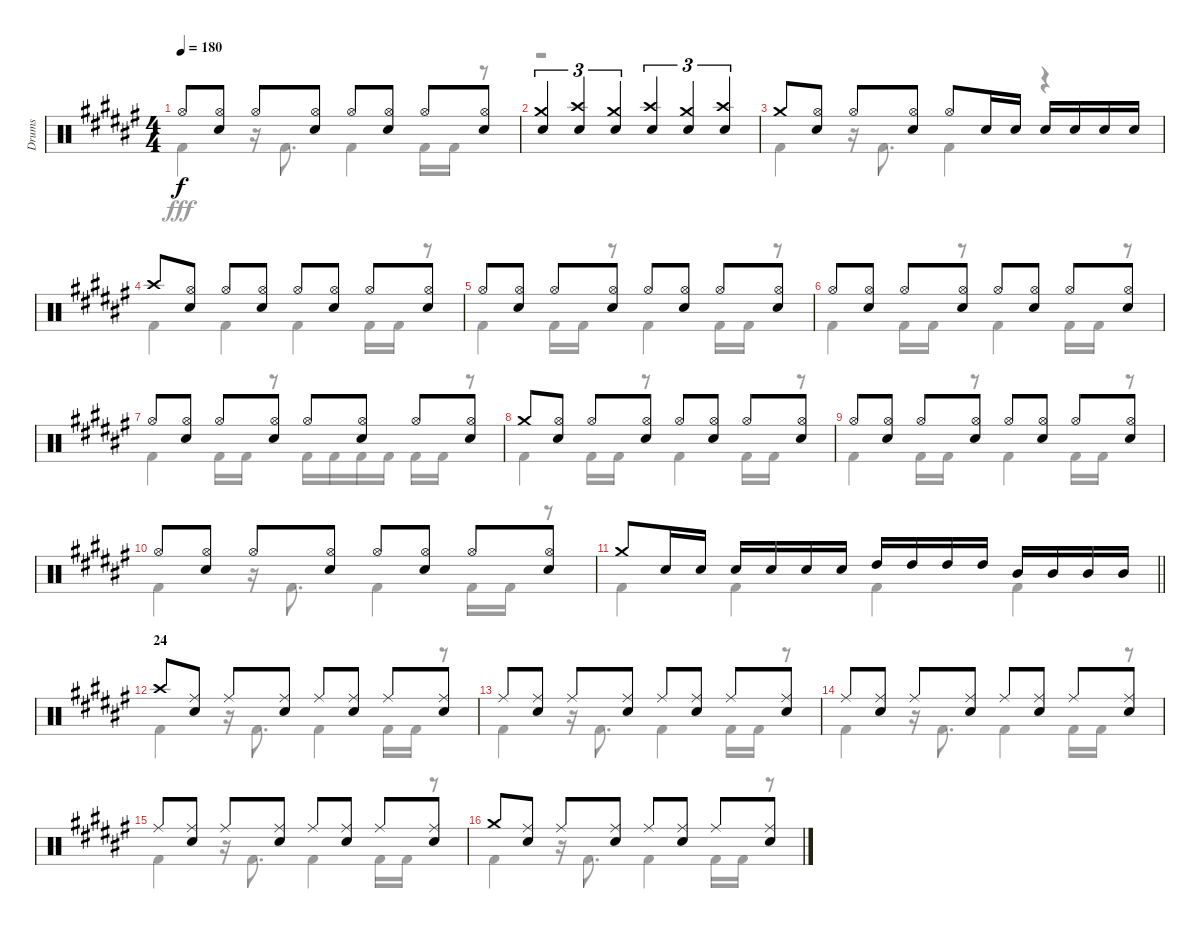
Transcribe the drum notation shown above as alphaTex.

\track ("Drums" "Drums") {instrument percussion}
\staff {score}
\articulation defaults
\voice
\ts (4 4)
\tempo 180
\clef neutral
\ks f# "Hi-Hat (open)".8{dy f}
("Hi-Hat (open)" "Snare (hit) 2").8 "Hi-Hat (open)".8 ("Hi-Hat (open)" "Snare (hit) 2").8 "Hi-Hat (open)".8 ("Hi-Hat (open)" "Snare (hit) 2").8 "Hi-Hat (open)".8 ("Hi-Hat (open)" "Snare (hit) 2").8 |
("Crash medium (hit)" "Snare (hit) 2").4{tu (3 2)} ("Crash high (hit)" "Snare (hit) 2").4{tu (3 2)} ("Crash medium (hit)" "Snare (hit) 2").4{tu (3 2)} ("Crash high (hit)" "Snare (hit) 2").4{tu (3 2)} ("Crash medium (hit)" "Snare (hit) 2").4{tu (3 2)} ("Crash high (hit)" "Snare (hit) 2").4{tu (3 2)} |
"Crash medium (hit)".8 ("Hi-Hat (open)" "Snare (hit) 2").8 "Hi-Hat (open)".8 ("Hi-Hat (open)" "Snare (hit) 2").8 "Hi-Hat (open)".8 "Snare (hit) 2".16 "Snare (hit) 2".16 "Snare (hit) 2".16 "Snare (hit) 2".16 "Snare (hit) 2".16 "Snare (hit) 2".16 |
"Crash high (hit)".8 ("Hi-Hat (open)" "Snare (hit) 2").8 "Hi-Hat (open)".8 ("Hi-Hat (open)" "Snare (hit) 2").8 "Hi-Hat (open)".8 ("Hi-Hat (open)" "Snare (hit) 2").8 "Hi-Hat (open)".8 ("Hi-Hat (open)" "Snare (hit) 2").8 |
"Hi-Hat (open)".8 ("Hi-Hat (open)" "Snare (hit) 2").8 "Hi-Hat (open)".8 ("Hi-Hat (open)" "Snare (hit) 2").8 "Hi-Hat (open)".8 ("Hi-Hat (open)" "Snare (hit) 2").8 "Hi-Hat (open)".8 ("Hi-Hat (open)" "Snare (hit) 2").8 |
"Hi-Hat (open)".8 ("Hi-Hat (open)" "Snare (hit) 2").8 "Hi-Hat (open)".8 ("Hi-Hat (open)" "Snare (hit) 2").8 "Hi-Hat (open)".8 ("Hi-Hat (open)" "Snare (hit) 2").8 "Hi-Hat (open)".8 ("Hi-Hat (open)" "Snare (hit) 2").8 |
"Hi-Hat (open)".8 ("Hi-Hat (open)" "Snare (hit) 2").8 "Hi-Hat (open)".8 ("Hi-Hat (open)" "Snare (hit) 2").8 "Hi-Hat (open)".8 ("Hi-Hat (open)" "Snare (hit) 2").8 "Hi-Hat (open)".8 ("Hi-Hat (open)" "Snare (hit) 2").8 |
"Crash medium (hit)".8 ("Hi-Hat (open)" "Snare (hit) 2").8 "Hi-Hat (open)".8 ("Hi-Hat (open)" "Snare (hit) 2").8 "Hi-Hat (open)".8 ("Hi-Hat (open)" "Snare (hit) 2").8 "Hi-Hat (open)".8 ("Hi-Hat (open)" "Snare (hit) 2").8 |
"Hi-Hat (open)".8 ("Hi-Hat (open)" "Snare (hit) 2").8 "Hi-Hat (open)".8 ("Hi-Hat (open)" "Snare (hit) 2").8 "Hi-Hat (open)".8 ("Hi-Hat (open)" "Snare (hit) 2").8 "Hi-Hat (open)".8 ("Hi-Hat (open)" "Snare (hit) 2").8 |
"Hi-Hat (open)".8 ("Hi-Hat (open)" "Snare (hit) 2").8 "Hi-Hat (open)".8 ("Hi-Hat (open)" "Snare (hit) 2").8 "Hi-Hat (open)".8 ("Hi-Hat (open)" "Snare (hit) 2").8 "Hi-Hat (open)".8 ("Hi-Hat (open)" "Snare (hit) 2").8 |
\barLineRight lightlight "Crash medium (hit)".8 "Snare (hit) 2".16 "Snare (hit) 2".16 "Snare (hit) 2".16 "Snare (hit) 2".16 "Snare (hit) 2".16 "Snare (hit) 2".16 "High Tom (hit)".16 "High Tom (hit)".16 "High Tom (hit)".16 "High Tom (hit)".16 "Mid Tom (hit)".16 "Mid Tom (hit)".16 "Mid Tom (hit)".16 "Mid Tom (hit)".16
|
\section ("" "24")
"Crash high (hit)".8 ("Ride (middle)" "Snare (hit) 2").8 "Ride (middle)".8 ("Ride (middle)" "Snare (hit) 2").8 "Ride (middle)".8 ("Ride (middle)" "Snare (hit) 2").8 "Ride (middle)".8 ("Ride (middle)" "Snare (hit) 2").8 |
"Ride (middle)".8 ("Ride (middle)" "Snare (hit) 2").8 "Ride (middle)".8 ("Ride (middle)" "Snare (hit) 2").8 "Ride (middle)".8 ("Ride (middle)" "Snare (hit) 2").8 "Ride (middle)".8 ("Ride (middle)" "Snare (hit) 2").8 |
"Ride (middle)".8 ("Ride (middle)" "Snare (hit) 2").8 "Ride (middle)".8 ("Ride (middle)" "Snare (hit) 2").8 "Ride (middle)".8 ("Ride (middle)" "Snare (hit) 2").8 "Ride (middle)".8 ("Ride (middle)" "Snare (hit) 2").8 |
"Ride (middle)".8 ("Ride (middle)" "Snare (hit) 2").8 "Ride (middle)".8 ("Ride (middle)" "Snare (hit) 2").8 "Ride (middle)".8 ("Ride (middle)" "Snare (hit) 2").8 "Ride (middle)".8 ("Ride (middle)" "Snare (hit) 2").8 |
"Crash medium (hit)".8 ("Ride (middle)" "Snare (hit) 2").8 "Ride (middle)".8 ("Ride (middle)" "Snare (hit) 2").8 "Ride (middle)".8 ("Ride (middle)" "Snare (hit) 2").8 "Ride (middle)".8 ("Ride (middle)" "Snare (hit) 2").8
\voice
\clef neutral
\ottava regular
\simile none
\ks f# "Kick (hit) 2".4{dy fff}
r.16 "Kick (hit) 2".8{d} "Kick (hit) 2".4 "Kick (hit) 2".16 "Kick (hit) 2".16 r.8 |
r.1 |
"Kick (hit) 2".4 r.16 "Kick (hit) 2".8{d} "Kick (hit) 2".4 r.4 |
"Kick (hit) 2".4 "Kick (hit) 2".4 "Kick (hit) 2".4 "Kick (hit) 2".16 "Kick (hit) 2".16 r.8 |
"Kick (hit) 2".4 "Kick (hit) 2".16 "Kick (hit) 2".16 r.8 "Kick (hit) 2".4 "Kick (hit) 2".16 "Kick (hit) 2".16 r.8 |
"Kick (hit) 2".4 "Kick (hit) 2".16 "Kick (hit) 2".16 r.8 "Kick (hit) 2".4 "Kick (hit) 2".16 "Kick (hit) 2".16 r.8 |
"Kick (hit) 2".4 "Kick (hit) 2".16 "Kick (hit) 2".16 r.8 "Kick (hit) 2".16 "Kick (hit) 2".16 "Kick (hit) 2".16 "Kick (hit) 2".16 "Kick (hit) 2".16 "Kick (hit) 2".16 r.8 |
"Kick (hit) 2".4 "Kick (hit) 2".16 "Kick (hit) 2".16 r.8 "Kick (hit) 2".4 "Kick (hit) 2".16 "Kick (hit) 2".16 r.8 |
"Kick (hit) 2".4 "Kick (hit) 2".16 "Kick (hit) 2".16 r.8 "Kick (hit) 2".4 "Kick (hit) 2".16 "Kick (hit) 2".16 r.8 |
"Kick (hit) 2".4 r.16 "Kick (hit) 2".8{d} "Kick (hit) 2".4 "Kick (hit) 2".16 "Kick (hit) 2".16 r.8 |
\barLineRight lightlight "Kick (hit) 2".4 "Kick (hit) 2".4 "Kick (hit) 2".4 "Kick (hit) 2".4
|
"Kick (hit) 2".4 r.16 "Kick (hit) 2".8{d} "Kick (hit) 2".4 "Kick (hit) 2".16 "Kick (hit) 2".16 r.8 |
"Kick (hit) 2".4 r.16 "Kick (hit) 2".8{d} "Kick (hit) 2".4 "Kick (hit) 2".16 "Kick (hit) 2".16 r.8 |
"Kick (hit) 2".4 r.16 "Kick (hit) 2".8{d} "Kick (hit) 2".4 "Kick (hit) 2".16 "Kick (hit) 2".16 r.8 |
"Kick (hit) 2".4 r.16 "Kick (hit) 2".8{d} "Kick (hit) 2".4 "Kick (hit) 2".16 "Kick (hit) 2".16 r.8 |
"Kick (hit) 2".4 r.16 "Kick (hit) 2".8{d} "Kick (hit) 2".4 "Kick (hit) 2".16 "Kick (hit) 2".16 r.8
